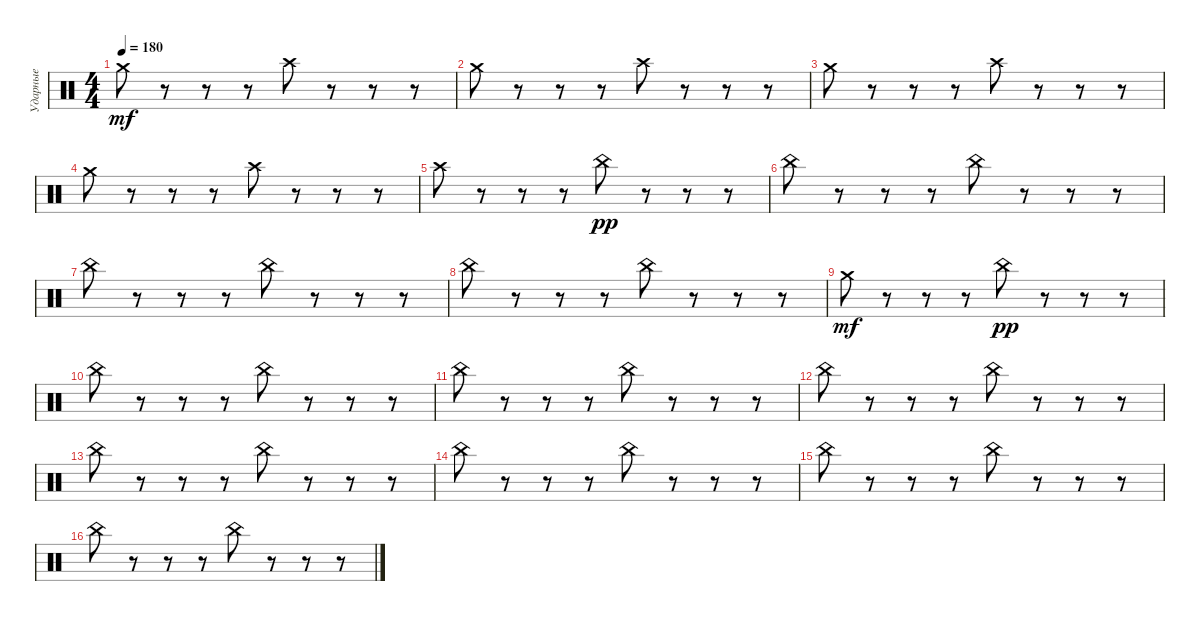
\track ("Ударные" "Ударные") {instrument percussion}
\staff {score}
\articulation defaults
\ts (4 4)
\tempo 180
\clef neutral
\ks c "Crash medium (hit)".8{dy mf}
r.8 r.8 r.8 "Crash high (hit)".8 r.8 r.8 r.8 |
"Crash medium (hit)".8 r.8 r.8 r.8 "Crash high (hit)".8 r.8 r.8 r.8 |
"Crash medium (hit)".8 r.8 r.8 r.8 "Crash high (hit)".8 r.8 r.8 r.8 |
"Crash medium (hit)".8 r.8 r.8 r.8 "Crash high (hit)".8 r.8 r.8 r.8 |
"Crash high (hit)".8 r.8 r.8 r.8 "China (hit)".8{dy pp} r.8 r.8 r.8 |
"China (hit)".8 r.8 r.8 r.8 "China (hit)".8 r.8 r.8 r.8 |
"China (hit)".8 r.8 r.8 r.8 "China (hit)".8 r.8 r.8 r.8 |
"China (hit)".8 r.8 r.8 r.8 "China (hit)".8 r.8 r.8 r.8 |
"Crash medium (hit)".8{dy mf} r.8 r.8 r.8 "China (hit)".8{dy pp} r.8 r.8 r.8 |
"China (hit)".8 r.8 r.8 r.8 "China (hit)".8 r.8 r.8 r.8 |
"China (hit)".8 r.8 r.8 r.8 "China (hit)".8 r.8 r.8 r.8 |
"China (hit)".8 r.8 r.8 r.8 "China (hit)".8 r.8 r.8 r.8 |
"China (hit)".8 r.8 r.8 r.8 "China (hit)".8 r.8 r.8 r.8 |
"China (hit)".8 r.8 r.8 r.8 "China (hit)".8 r.8 r.8 r.8 |
"China (hit)".8 r.8 r.8 r.8 "China (hit)".8 r.8 r.8 r.8 |
"China (hit)".8 r.8 r.8 r.8 "China (hit)".8 r.8 r.8 r.8
